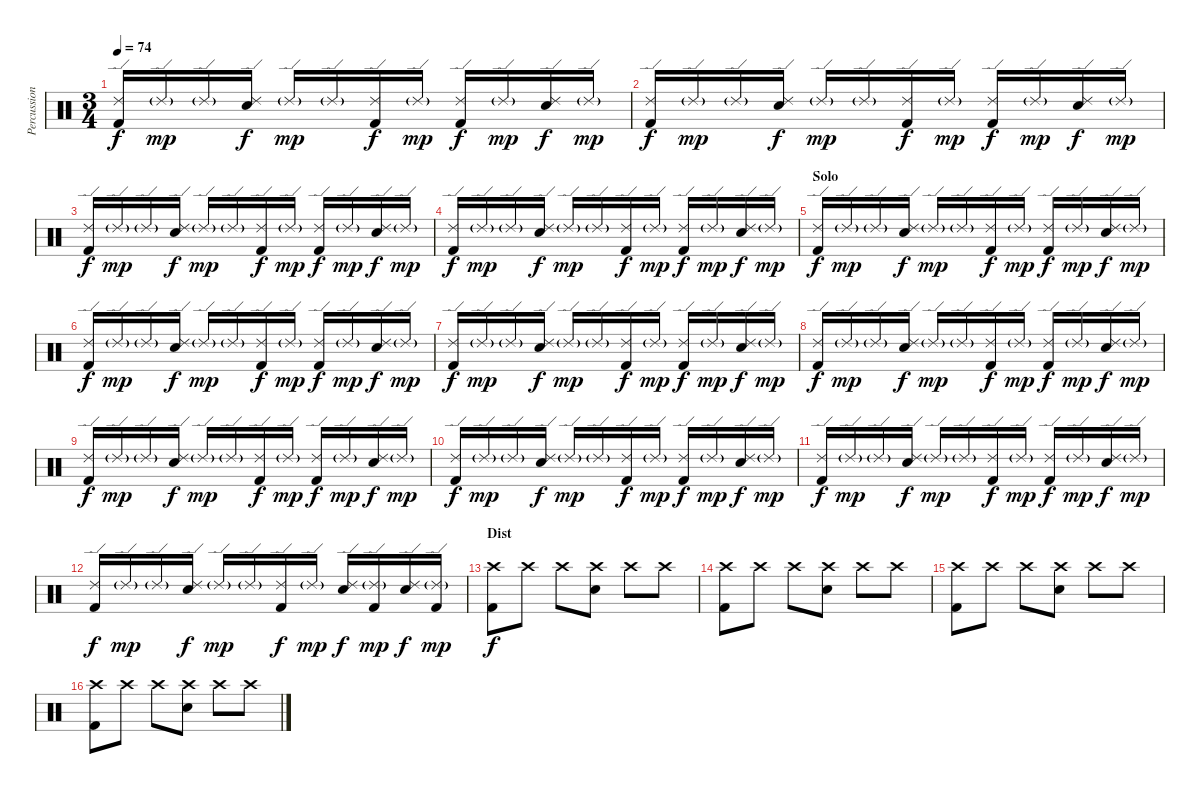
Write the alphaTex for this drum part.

\track ("Percussion" "Percussion") {instrument percussion}
\staff {score}
\articulation defaults
\ts (3 4)
\tempo 74
\clef neutral
\ks c
("Ride (edge) 2" "Kick (hit) 2").16{dy f} "Ride (edge) 2"{g}.16{dy mp} "Ride (edge) 2"{g}.16 ("Ride (edge) 2" "Electric Snare (hit)").16{dy f} "Ride (edge) 2"{g}.16{dy mp} "Ride (edge) 2"{g}.16 ("Ride (edge) 2" "Kick (hit) 2").16{dy f} "Ride (edge) 2"{g}.16{dy mp} ("Ride (edge) 2" "Kick (hit) 2").16{dy f} "Ride (edge) 2"{g}.16{dy mp} ("Ride (edge) 2" "Electric Snare (hit)").16{dy f} "Ride (edge) 2"{g}.16{dy mp} |
("Ride (edge) 2" "Kick (hit) 2").16{dy f} "Ride (edge) 2"{g}.16{dy mp} "Ride (edge) 2"{g}.16 ("Ride (edge) 2" "Electric Snare (hit)").16{dy f} "Ride (edge) 2"{g}.16{dy mp} "Ride (edge) 2"{g}.16 ("Ride (edge) 2" "Kick (hit) 2").16{dy f} "Ride (edge) 2"{g}.16{dy mp} ("Ride (edge) 2" "Kick (hit) 2").16{dy f} "Ride (edge) 2"{g}.16{dy mp} ("Ride (edge) 2" "Electric Snare (hit)").16{dy f} "Ride (edge) 2"{g}.16{dy mp} |
("Ride (edge) 2" "Kick (hit) 2").16{dy f} "Ride (edge) 2"{g}.16{dy mp} "Ride (edge) 2"{g}.16 ("Ride (edge) 2" "Electric Snare (hit)").16{dy f} "Ride (edge) 2"{g}.16{dy mp} "Ride (edge) 2"{g}.16 ("Ride (edge) 2" "Kick (hit) 2").16{dy f} "Ride (edge) 2"{g}.16{dy mp} ("Ride (edge) 2" "Kick (hit) 2").16{dy f} "Ride (edge) 2"{g}.16{dy mp} ("Ride (edge) 2" "Electric Snare (hit)").16{dy f} "Ride (edge) 2"{g}.16{dy mp} |
("Ride (edge) 2" "Kick (hit) 2").16{dy f} "Ride (edge) 2"{g}.16{dy mp} "Ride (edge) 2"{g}.16 ("Ride (edge) 2" "Electric Snare (hit)").16{dy f} "Ride (edge) 2"{g}.16{dy mp} "Ride (edge) 2"{g}.16 ("Ride (edge) 2" "Kick (hit) 2").16{dy f} "Ride (edge) 2"{g}.16{dy mp} ("Ride (edge) 2" "Kick (hit) 2").16{dy f} "Ride (edge) 2"{g}.16{dy mp} ("Ride (edge) 2" "Electric Snare (hit)").16{dy f} "Ride (edge) 2"{g}.16{dy mp} |
\section ("" "Solo")
("Ride (edge) 2" "Kick (hit) 2").16{dy f} "Ride (edge) 2"{g}.16{dy mp} "Ride (edge) 2"{g}.16 ("Ride (edge) 2" "Electric Snare (hit)").16{dy f} "Ride (edge) 2"{g}.16{dy mp} "Ride (edge) 2"{g}.16 ("Ride (edge) 2" "Kick (hit) 2").16{dy f} "Ride (edge) 2"{g}.16{dy mp} ("Ride (edge) 2" "Kick (hit) 2").16{dy f} "Ride (edge) 2"{g}.16{dy mp} ("Ride (edge) 2" "Electric Snare (hit)").16{dy f} "Ride (edge) 2"{g}.16{dy mp} |
("Ride (edge) 2" "Kick (hit) 2").16{dy f} "Ride (edge) 2"{g}.16{dy mp} "Ride (edge) 2"{g}.16 ("Ride (edge) 2" "Electric Snare (hit)").16{dy f} "Ride (edge) 2"{g}.16{dy mp} "Ride (edge) 2"{g}.16 ("Ride (edge) 2" "Kick (hit) 2").16{dy f} "Ride (edge) 2"{g}.16{dy mp} ("Ride (edge) 2" "Kick (hit) 2").16{dy f} "Ride (edge) 2"{g}.16{dy mp} ("Ride (edge) 2" "Electric Snare (hit)").16{dy f} "Ride (edge) 2"{g}.16{dy mp} |
("Ride (edge) 2" "Kick (hit) 2").16{dy f} "Ride (edge) 2"{g}.16{dy mp} "Ride (edge) 2"{g}.16 ("Ride (edge) 2" "Electric Snare (hit)").16{dy f} "Ride (edge) 2"{g}.16{dy mp} "Ride (edge) 2"{g}.16 ("Ride (edge) 2" "Kick (hit) 2").16{dy f} "Ride (edge) 2"{g}.16{dy mp} ("Ride (edge) 2" "Kick (hit) 2").16{dy f} "Ride (edge) 2"{g}.16{dy mp} ("Ride (edge) 2" "Electric Snare (hit)").16{dy f} "Ride (edge) 2"{g}.16{dy mp} |
("Ride (edge) 2" "Kick (hit) 2").16{dy f} "Ride (edge) 2"{g}.16{dy mp} "Ride (edge) 2"{g}.16 ("Ride (edge) 2" "Electric Snare (hit)").16{dy f} "Ride (edge) 2"{g}.16{dy mp} "Ride (edge) 2"{g}.16 ("Ride (edge) 2" "Kick (hit) 2").16{dy f} "Ride (edge) 2"{g}.16{dy mp} ("Ride (edge) 2" "Kick (hit) 2").16{dy f} "Ride (edge) 2"{g}.16{dy mp} ("Ride (edge) 2" "Electric Snare (hit)").16{dy f} "Ride (edge) 2"{g}.16{dy mp} |
("Ride (edge) 2" "Kick (hit) 2").16{dy f} "Ride (edge) 2"{g}.16{dy mp} "Ride (edge) 2"{g}.16 ("Ride (edge) 2" "Electric Snare (hit)").16{dy f} "Ride (edge) 2"{g}.16{dy mp} "Ride (edge) 2"{g}.16 ("Ride (edge) 2" "Kick (hit) 2").16{dy f} "Ride (edge) 2"{g}.16{dy mp} ("Ride (edge) 2" "Kick (hit) 2").16{dy f} "Ride (edge) 2"{g}.16{dy mp} ("Ride (edge) 2" "Electric Snare (hit)").16{dy f} "Ride (edge) 2"{g}.16{dy mp} |
("Ride (edge) 2" "Kick (hit) 2").16{dy f} "Ride (edge) 2"{g}.16{dy mp} "Ride (edge) 2"{g}.16 ("Ride (edge) 2" "Electric Snare (hit)").16{dy f} "Ride (edge) 2"{g}.16{dy mp} "Ride (edge) 2"{g}.16 ("Ride (edge) 2" "Kick (hit) 2").16{dy f} "Ride (edge) 2"{g}.16{dy mp} ("Ride (edge) 2" "Kick (hit) 2").16{dy f} "Ride (edge) 2"{g}.16{dy mp} ("Ride (edge) 2" "Electric Snare (hit)").16{dy f} "Ride (edge) 2"{g}.16{dy mp} |
("Ride (edge) 2" "Kick (hit) 2").16{dy f} "Ride (edge) 2"{g}.16{dy mp} "Ride (edge) 2"{g}.16 ("Ride (edge) 2" "Electric Snare (hit)").16{dy f} "Ride (edge) 2"{g}.16{dy mp} "Ride (edge) 2"{g}.16 ("Ride (edge) 2" "Kick (hit) 2").16{dy f} "Ride (edge) 2"{g}.16{dy mp} ("Ride (edge) 2" "Kick (hit) 2").16{dy f} "Ride (edge) 2"{g}.16{dy mp} ("Ride (edge) 2" "Electric Snare (hit)").16{dy f} "Ride (edge) 2"{g}.16{dy mp} |
("Ride (edge) 2" "Kick (hit) 2").16{dy f} "Ride (edge) 2"{g}.16{dy mp} "Ride (edge) 2"{g}.16 ("Ride (edge) 2" "Electric Snare (hit)").16{dy f} "Ride (edge) 2"{g}.16{dy mp} "Ride (edge) 2"{g}.16 ("Ride (edge) 2" "Kick (hit) 2").16{dy f} "Ride (edge) 2"{g}.16{dy mp} ("Ride (edge) 2" "Electric Snare (hit)").16{dy f} ("Ride (edge) 2"{g} "Kick (hit) 2").16{dy mp} ("Ride (edge) 2" "Electric Snare (hit)").16{dy f} ("Ride (edge) 2"{g} "Kick (hit) 2").16{dy mp} |
\section ("" "Dist")
("Crash high (hit)" "Kick (hit) 2").8{dy f} "Crash high (hit)".8 "Crash high (hit)".8 ("Crash high (hit)" "Electric Snare (hit)").8 "Crash high (hit)".8 "Crash high (hit)".8 |
("Crash high (hit)" "Kick (hit) 2").8 "Crash high (hit)".8 "Crash high (hit)".8 ("Crash high (hit)" "Electric Snare (hit)").8 "Crash high (hit)".8 "Crash high (hit)".8 |
("Crash high (hit)" "Kick (hit) 2").8 "Crash high (hit)".8 "Crash high (hit)".8 ("Crash high (hit)" "Electric Snare (hit)").8 "Crash high (hit)".8 "Crash high (hit)".8 |
("Crash high (hit)" "Kick (hit) 2").8 "Crash high (hit)".8 "Crash high (hit)".8 ("Crash high (hit)" "Electric Snare (hit)").8 "Crash high (hit)".8 "Crash high (hit)".8
